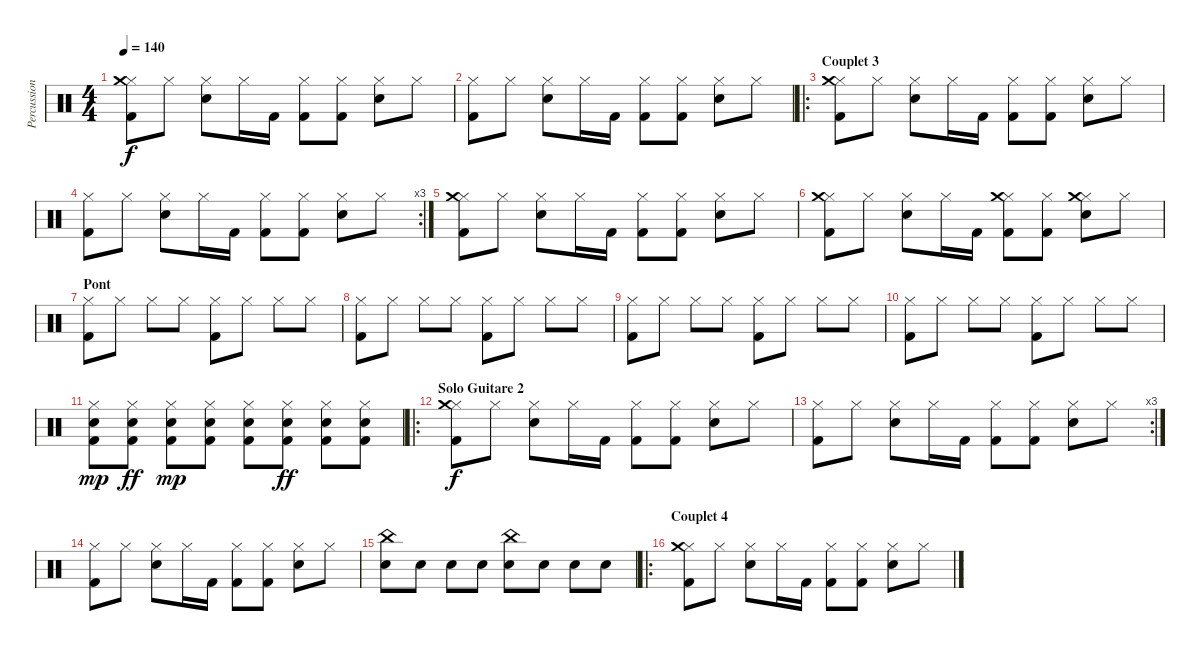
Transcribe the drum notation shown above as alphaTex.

\track ("Percussions" "Percussion") {instrument percussion}
\staff {score}
\articulation defaults
\ts (4 4)
\tempo 140
\clef neutral
\ks c
("Hi-Hat (closed)" "Crash medium (hit)" "Kick (hit) 2").8{dy f} "Hi-Hat (closed)".8 ("Hi-Hat (closed)" "Electric Snare (hit)").8 "Hi-Hat (closed)".16 "Kick (hit) 2".16 ("Hi-Hat (closed)" "Kick (hit) 2").8 ("Hi-Hat (closed)" "Kick (hit) 2").8 ("Hi-Hat (closed)" "Electric Snare (hit)").8 "Hi-Hat (closed)".8 |
("Hi-Hat (closed)" "Kick (hit) 2").8 "Hi-Hat (closed)".8 ("Hi-Hat (closed)" "Electric Snare (hit)").8 "Hi-Hat (closed)".16 "Kick (hit) 2".16 ("Hi-Hat (closed)" "Kick (hit) 2").8 ("Hi-Hat (closed)" "Kick (hit) 2").8 ("Hi-Hat (closed)" "Electric Snare (hit)").8 "Hi-Hat (closed)".8 |
\ro
\section ("" "Couplet 3")
("Hi-Hat (closed)" "Crash medium (hit)" "Kick (hit) 2").8 "Hi-Hat (closed)".8 ("Hi-Hat (closed)" "Electric Snare (hit)").8 "Hi-Hat (closed)".16 "Kick (hit) 2".16 ("Hi-Hat (closed)" "Kick (hit) 2").8 ("Hi-Hat (closed)" "Kick (hit) 2").8 ("Hi-Hat (closed)" "Electric Snare (hit)").8 "Hi-Hat (closed)".8 |
\rc 3
("Hi-Hat (closed)" "Kick (hit) 2").8 "Hi-Hat (closed)".8 ("Hi-Hat (closed)" "Electric Snare (hit)").8 "Hi-Hat (closed)".16 "Kick (hit) 2".16 ("Hi-Hat (closed)" "Kick (hit) 2").8 ("Hi-Hat (closed)" "Kick (hit) 2").8 ("Hi-Hat (closed)" "Electric Snare (hit)").8 "Hi-Hat (closed)".8 |
("Hi-Hat (closed)" "Crash medium (hit)" "Kick (hit) 2").8 "Hi-Hat (closed)".8 ("Hi-Hat (closed)" "Electric Snare (hit)").8 "Hi-Hat (closed)".16 "Kick (hit) 2".16 ("Hi-Hat (closed)" "Kick (hit) 2").8 ("Hi-Hat (closed)" "Kick (hit) 2").8 ("Hi-Hat (closed)" "Electric Snare (hit)").8 "Hi-Hat (closed)".8 |
("Hi-Hat (closed)" "Crash medium (hit)" "Kick (hit) 2").8 "Hi-Hat (closed)".8 ("Hi-Hat (closed)" "Electric Snare (hit)").8 "Hi-Hat (closed)".16 "Kick (hit) 2".16 ("Hi-Hat (closed)" "Crash medium (hit)" "Kick (hit) 2").8 ("Hi-Hat (closed)" "Kick (hit) 2").8 ("Hi-Hat (closed)" "Crash medium (hit)" "Electric Snare (hit)").8 "Hi-Hat (closed)".8 |
\section ("" "Pont")
("Hi-Hat (closed)" "Kick (hit) 2").8 "Hi-Hat (closed)".8 "Hi-Hat (closed)".8 "Hi-Hat (closed)".8 ("Hi-Hat (closed)" "Kick (hit) 2").8 "Hi-Hat (closed)".8 "Hi-Hat (closed)".8 "Hi-Hat (closed)".8 |
("Hi-Hat (closed)" "Kick (hit) 2").8 "Hi-Hat (closed)".8 "Hi-Hat (closed)".8 "Hi-Hat (closed)".8 ("Hi-Hat (closed)" "Kick (hit) 2").8 "Hi-Hat (closed)".8 "Hi-Hat (closed)".8 "Hi-Hat (closed)".8 |
("Hi-Hat (closed)" "Kick (hit) 2").8 "Hi-Hat (closed)".8 "Hi-Hat (closed)".8 "Hi-Hat (closed)".8 ("Hi-Hat (closed)" "Kick (hit) 2").8 "Hi-Hat (closed)".8 "Hi-Hat (closed)".8 "Hi-Hat (closed)".8 |
("Hi-Hat (closed)" "Kick (hit) 2").8 "Hi-Hat (closed)".8 "Hi-Hat (closed)".8 "Hi-Hat (closed)".8 ("Hi-Hat (closed)" "Kick (hit) 2").8 "Hi-Hat (closed)".8 "Hi-Hat (closed)".8 "Hi-Hat (closed)".8 |
("Hi-Hat (closed)" "Electric Snare (hit)" "Kick (hit) 2").8{dy mp} ("Hi-Hat (closed)" "Electric Snare (hit)" "Kick (hit) 2").8{dy ff} ("Hi-Hat (closed)" "Electric Snare (hit)" "Kick (hit) 2").8{dy mp} ("Hi-Hat (closed)" "Electric Snare (hit)" "Kick (hit) 2").8 ("Hi-Hat (closed)" "Electric Snare (hit)" "Kick (hit) 2").8 ("Hi-Hat (closed)" "Electric Snare (hit)" "Kick (hit) 2").8{dy ff} ("Hi-Hat (closed)" "Electric Snare (hit)" "Kick (hit) 2").8 ("Hi-Hat (closed)" "Electric Snare (hit)" "Kick (hit) 2").8 |
\ro
\section ("" "Solo Guitare 2")
("Hi-Hat (closed)" "Crash medium (hit)" "Kick (hit) 2").8{dy f} "Hi-Hat (closed)".8 ("Hi-Hat (closed)" "Electric Snare (hit)").8 "Hi-Hat (closed)".16 "Kick (hit) 2".16 ("Hi-Hat (closed)" "Kick (hit) 2").8 ("Hi-Hat (closed)" "Kick (hit) 2").8 ("Hi-Hat (closed)" "Electric Snare (hit)").8 "Hi-Hat (closed)".8 |
\rc 3
("Hi-Hat (closed)" "Kick (hit) 2").8 "Hi-Hat (closed)".8 ("Hi-Hat (closed)" "Electric Snare (hit)").8 "Hi-Hat (closed)".16 "Kick (hit) 2".16 ("Hi-Hat (closed)" "Kick (hit) 2").8 ("Hi-Hat (closed)" "Kick (hit) 2").8 ("Hi-Hat (closed)" "Electric Snare (hit)").8 "Hi-Hat (closed)".8 |
("Hi-Hat (closed)" "Kick (hit) 2").8 "Hi-Hat (closed)".8 ("Hi-Hat (closed)" "Electric Snare (hit)").8 "Hi-Hat (closed)".16 "Kick (hit) 2".16 ("Hi-Hat (closed)" "Kick (hit) 2").8 ("Hi-Hat (closed)" "Kick (hit) 2").8 ("Hi-Hat (closed)" "Electric Snare (hit)").8 "Hi-Hat (closed)".8 |
("Electric Snare (hit)" "China (hit)").8 "Electric Snare (hit)".8 "Electric Snare (hit)".8 "Electric Snare (hit)".8 ("Electric Snare (hit)" "China (hit)").8 "Electric Snare (hit)".8 "Electric Snare (hit)".8 "Electric Snare (hit)".8 |
\ro
\section ("" "Couplet 4")
("Hi-Hat (closed)" "Crash medium (hit)" "Kick (hit) 2").8 "Hi-Hat (closed)".8 ("Hi-Hat (closed)" "Electric Snare (hit)").8 "Hi-Hat (closed)".16 "Kick (hit) 2".16 ("Hi-Hat (closed)" "Kick (hit) 2").8 ("Hi-Hat (closed)" "Kick (hit) 2").8 ("Hi-Hat (closed)" "Electric Snare (hit)").8 "Hi-Hat (closed)".8
